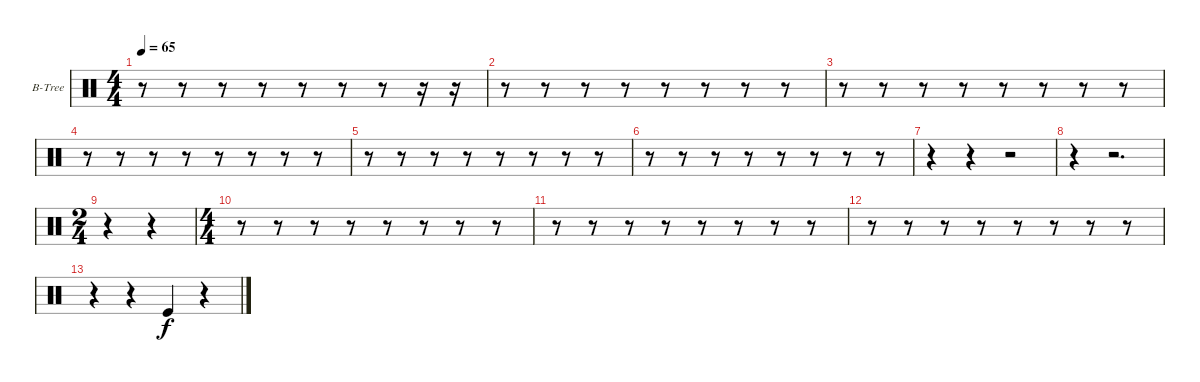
\bracketExtendMode groupsimilarinstruments
\firstSystemTrackNameOrientation horizontal
\otherSystemsTrackNameOrientation horizontal
\track ("Bell Tree" "B-Tree") {instrument percussion}
\staff {score}
\articulation defaults
\ts (4 4)
\tempo 65
\clef neutral
\ks c
r.8{dy f} r.8 r.8 r.8 r.8 r.8 r.8 r.16 r.16 |
r.8 r.8 r.8 r.8 r.8 r.8 r.8 r.8 |
r.8 r.8 r.8 r.8 r.8 r.8 r.8 r.8 |
r.8 r.8 r.8 r.8 r.8 r.8 r.8 r.8 |
r.8 r.8 r.8 r.8 r.8 r.8 r.8 r.8 |
r.8 r.8 r.8 r.8 r.8 r.8 r.8 r.8 |
r.4 r.4 r.2 |
r.4 r.2{d} |
\ts (2 4)
r.4 r.4 |
\ts (4 4)
r.8 r.8 r.8 r.8 r.8 r.8 r.8 r.8 |
r.8 r.8 r.8 r.8 r.8 r.8 r.8 r.8 |
r.8 r.8 r.8 r.8 r.8 r.8 r.8 r.8 |
r.4 r.4 "Kick (hit)".4 r.4
